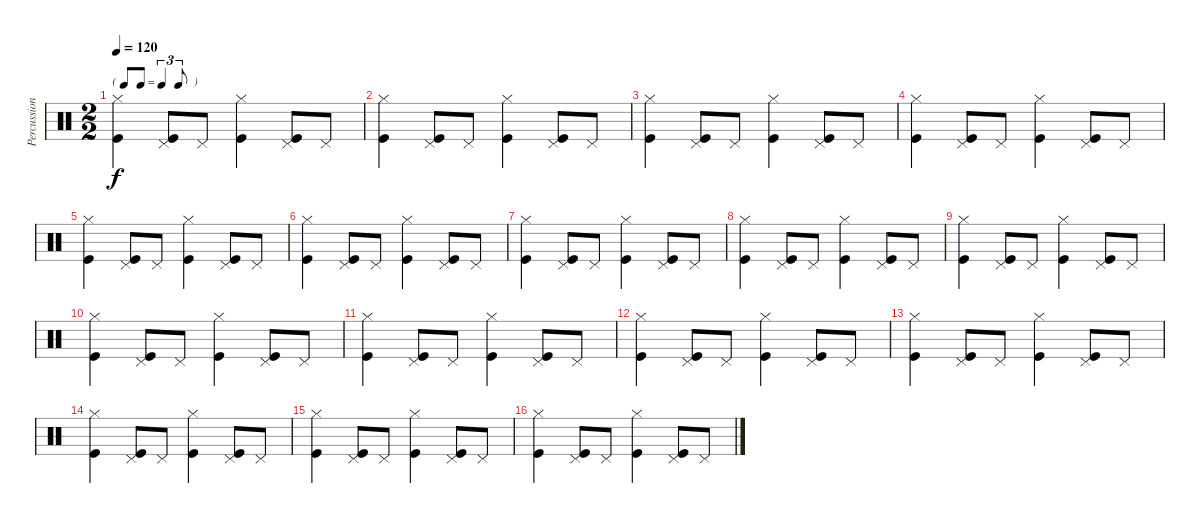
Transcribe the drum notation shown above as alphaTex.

\track ("Percussions" "Percussion") {instrument percussion}
\staff {score}
\articulation defaults
\ts (2 2)
\tf triplet8th
\tempo 120
\clef neutral
\ks c
("Hi-Hat (closed)" "Kick (hit)").4{dy f} ("Pedal Hi-Hat (hit)" "Kick (hit)").8 "Pedal Hi-Hat (hit)".8 ("Hi-Hat (closed)" "Kick (hit)").4 ("Pedal Hi-Hat (hit)" "Kick (hit)").8 "Pedal Hi-Hat (hit)".8 |
("Hi-Hat (closed)" "Kick (hit)").4 ("Pedal Hi-Hat (hit)" "Kick (hit)").8 "Pedal Hi-Hat (hit)".8 ("Hi-Hat (closed)" "Kick (hit)").4 ("Pedal Hi-Hat (hit)" "Kick (hit)").8 "Pedal Hi-Hat (hit)".8 |
("Hi-Hat (closed)" "Kick (hit)").4 ("Pedal Hi-Hat (hit)" "Kick (hit)").8 "Pedal Hi-Hat (hit)".8 ("Hi-Hat (closed)" "Kick (hit)").4 ("Pedal Hi-Hat (hit)" "Kick (hit)").8 "Pedal Hi-Hat (hit)".8 |
("Hi-Hat (closed)" "Kick (hit)").4 ("Pedal Hi-Hat (hit)" "Kick (hit)").8 "Pedal Hi-Hat (hit)".8 ("Hi-Hat (closed)" "Kick (hit)").4 ("Pedal Hi-Hat (hit)" "Kick (hit)").8 "Pedal Hi-Hat (hit)".8 |
("Hi-Hat (closed)" "Kick (hit)").4 ("Pedal Hi-Hat (hit)" "Kick (hit)").8 "Pedal Hi-Hat (hit)".8 ("Hi-Hat (closed)" "Kick (hit)").4 ("Pedal Hi-Hat (hit)" "Kick (hit)").8 "Pedal Hi-Hat (hit)".8 |
("Hi-Hat (closed)" "Kick (hit)").4 ("Pedal Hi-Hat (hit)" "Kick (hit)").8 "Pedal Hi-Hat (hit)".8 ("Hi-Hat (closed)" "Kick (hit)").4 ("Pedal Hi-Hat (hit)" "Kick (hit)").8 "Pedal Hi-Hat (hit)".8 |
("Hi-Hat (closed)" "Kick (hit)").4 ("Pedal Hi-Hat (hit)" "Kick (hit)").8 "Pedal Hi-Hat (hit)".8 ("Hi-Hat (closed)" "Kick (hit)").4 ("Pedal Hi-Hat (hit)" "Kick (hit)").8 "Pedal Hi-Hat (hit)".8 |
("Hi-Hat (closed)" "Kick (hit)").4 ("Pedal Hi-Hat (hit)" "Kick (hit)").8 "Pedal Hi-Hat (hit)".8 ("Hi-Hat (closed)" "Kick (hit)").4 ("Pedal Hi-Hat (hit)" "Kick (hit)").8 "Pedal Hi-Hat (hit)".8 |
("Hi-Hat (closed)" "Kick (hit)").4 ("Pedal Hi-Hat (hit)" "Kick (hit)").8 "Pedal Hi-Hat (hit)".8 ("Hi-Hat (closed)" "Kick (hit)").4 ("Pedal Hi-Hat (hit)" "Kick (hit)").8 "Pedal Hi-Hat (hit)".8 |
("Hi-Hat (closed)" "Kick (hit)").4 ("Pedal Hi-Hat (hit)" "Kick (hit)").8 "Pedal Hi-Hat (hit)".8 ("Hi-Hat (closed)" "Kick (hit)").4 ("Pedal Hi-Hat (hit)" "Kick (hit)").8 "Pedal Hi-Hat (hit)".8 |
("Hi-Hat (closed)" "Kick (hit)").4 ("Pedal Hi-Hat (hit)" "Kick (hit)").8 "Pedal Hi-Hat (hit)".8 ("Hi-Hat (closed)" "Kick (hit)").4 ("Pedal Hi-Hat (hit)" "Kick (hit)").8 "Pedal Hi-Hat (hit)".8 |
("Hi-Hat (closed)" "Kick (hit)").4 ("Pedal Hi-Hat (hit)" "Kick (hit)").8 "Pedal Hi-Hat (hit)".8 ("Hi-Hat (closed)" "Kick (hit)").4 ("Pedal Hi-Hat (hit)" "Kick (hit)").8 "Pedal Hi-Hat (hit)".8 |
("Hi-Hat (closed)" "Kick (hit)").4 ("Pedal Hi-Hat (hit)" "Kick (hit)").8 "Pedal Hi-Hat (hit)".8 ("Hi-Hat (closed)" "Kick (hit)").4 ("Pedal Hi-Hat (hit)" "Kick (hit)").8 "Pedal Hi-Hat (hit)".8 |
("Hi-Hat (closed)" "Kick (hit)").4 ("Pedal Hi-Hat (hit)" "Kick (hit)").8 "Pedal Hi-Hat (hit)".8 ("Hi-Hat (closed)" "Kick (hit)").4 ("Pedal Hi-Hat (hit)" "Kick (hit)").8 "Pedal Hi-Hat (hit)".8 |
("Hi-Hat (closed)" "Kick (hit)").4 ("Pedal Hi-Hat (hit)" "Kick (hit)").8 "Pedal Hi-Hat (hit)".8 ("Hi-Hat (closed)" "Kick (hit)").4 ("Pedal Hi-Hat (hit)" "Kick (hit)").8 "Pedal Hi-Hat (hit)".8 |
("Hi-Hat (closed)" "Kick (hit)").4 ("Pedal Hi-Hat (hit)" "Kick (hit)").8 "Pedal Hi-Hat (hit)".8 ("Hi-Hat (closed)" "Kick (hit)").4 ("Pedal Hi-Hat (hit)" "Kick (hit)").8 "Pedal Hi-Hat (hit)".8
